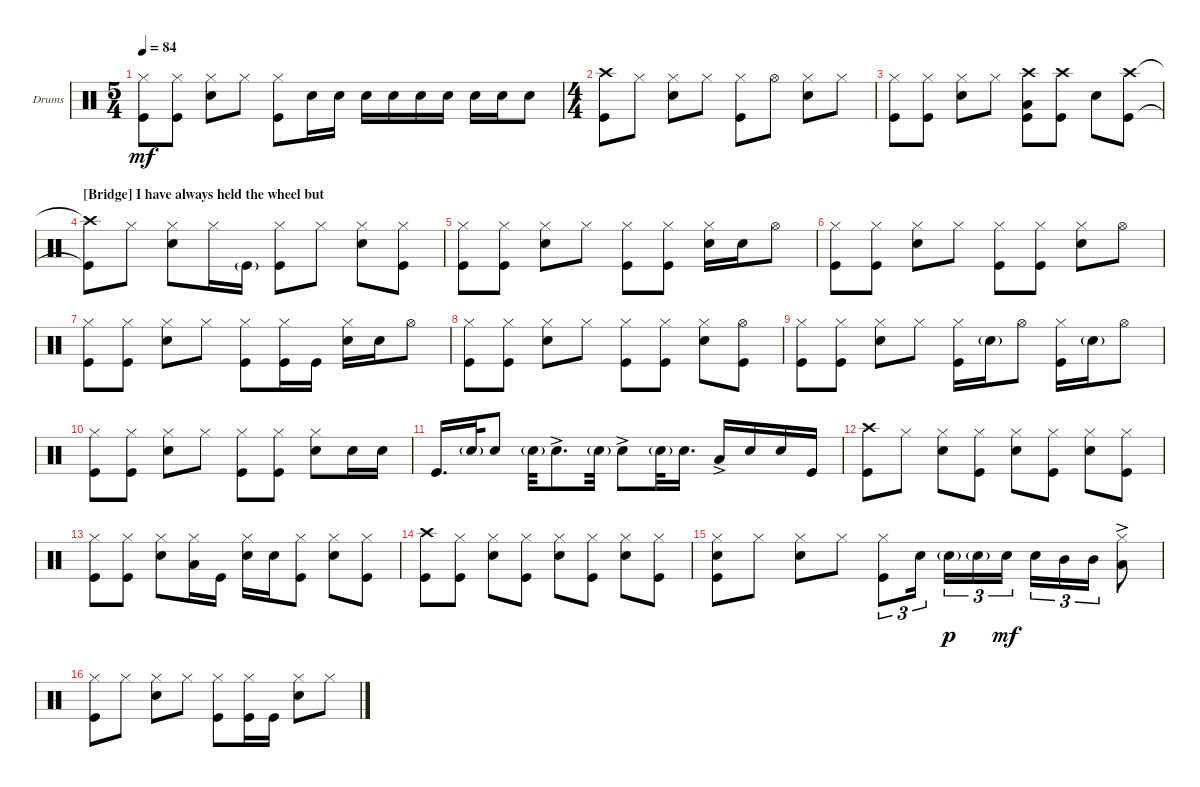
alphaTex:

\defaultSystemsLayout 4
\bracketExtendMode groupsimilarinstruments
\firstSystemTrackNameOrientation horizontal
\otherSystemsTrackNameOrientation horizontal
\track ("Drumkit" "Drums") {instrument percussion}
\staff {score}
\articulation defaults
\ts (5 4)
\tempo 84
\clef neutral
\ks aminor
("Hi-Hat (closed)" "Kick (hit)").8{dy mf} ("Hi-Hat (closed)" "Kick (hit)").8 ("Hi-Hat (closed)" "Snare (hit) 2").8 "Hi-Hat (closed)".8 ("Hi-Hat (closed)" "Kick (hit)").8 "Snare (hit) 2".16 "Snare (hit) 2".16 "Snare (hit) 2".16 "Snare (hit) 2".16 "Snare (hit) 2".16 "Snare (hit) 2".16 "Snare (hit) 2".16 "Snare (hit) 2".16 "Snare (hit) 2".8 |
\ts (4 4)
("Kick (hit)" "Crash high (hit)").8 "Hi-Hat (closed)".8 ("Hi-Hat (closed)" "Snare (hit) 2").8 "Hi-Hat (closed)".8 ("Hi-Hat (closed)" "Kick (hit)").8 "Hi-Hat (open)".8 ("Hi-Hat (closed)" "Snare (hit) 2").8 "Hi-Hat (closed)".8 |
("Hi-Hat (closed)" "Kick (hit)").8 ("Hi-Hat (closed)" "Kick (hit)").8 ("Hi-Hat (closed)" "Snare (hit) 2").8 "Hi-Hat (closed)".8 ("Kick (hit)" "Crash high (hit)" "Low Tom (hit)").8 ("Crash high (hit)" "Kick (hit)").8 "Snare (hit) 2".8 ("Crash high (hit)" "Kick (hit)").8 |
\section ("" "[Bridge] I have always held the wheel but ")
("Crash high (hit)"{t} "Kick (hit)"{t}).8 "Hi-Hat (closed)".8 ("Hi-Hat (closed)" "Snare (hit) 2").8 "Hi-Hat (closed)".16 "Kick (hit)"{g}.16 ("Hi-Hat (closed)" "Kick (hit)").8 "Hi-Hat (closed)".8 ("Hi-Hat (closed)" "Snare (hit) 2").8 ("Hi-Hat (closed)" "Kick (hit)").8 |
("Hi-Hat (closed)" "Kick (hit)").8 ("Hi-Hat (closed)" "Kick (hit)").8 ("Hi-Hat (closed)" "Snare (hit) 2").8 "Hi-Hat (closed)".8 ("Hi-Hat (closed)" "Kick (hit)").8 ("Hi-Hat (closed)" "Kick (hit)").8 ("Hi-Hat (closed)" "Snare (hit) 2").16 "Snare (hit) 2".16 "Hi-Hat (open)".8 |
("Hi-Hat (closed)" "Kick (hit)").8 ("Hi-Hat (closed)" "Kick (hit)").8 ("Hi-Hat (closed)" "Snare (hit) 2").8 "Hi-Hat (closed)".8 ("Hi-Hat (closed)" "Kick (hit)").8 ("Hi-Hat (closed)" "Kick (hit)").8 ("Hi-Hat (closed)" "Snare (hit) 2").8 "Hi-Hat (open)".8 |
("Hi-Hat (closed)" "Kick (hit)").8 ("Hi-Hat (closed)" "Kick (hit)").8 ("Hi-Hat (closed)" "Snare (hit) 2").8 "Hi-Hat (closed)".8 ("Hi-Hat (closed)" "Kick (hit)").8 ("Hi-Hat (closed)" "Kick (hit)").16 "Kick (hit)".16 ("Hi-Hat (closed)" "Snare (hit) 2").16 "Snare (hit) 2".16 "Hi-Hat (open)".8 |
("Hi-Hat (closed)" "Kick (hit)").8 ("Hi-Hat (closed)" "Kick (hit)").8 ("Hi-Hat (closed)" "Snare (hit) 2").8 "Hi-Hat (closed)".8 ("Hi-Hat (closed)" "Kick (hit)").8 ("Hi-Hat (closed)" "Kick (hit)").8 ("Hi-Hat (closed)" "Snare (hit) 2").8 ("Kick (hit)" "Hi-Hat (open)").8 |
("Hi-Hat (closed)" "Kick (hit)").8 ("Hi-Hat (closed)" "Kick (hit)").8 ("Hi-Hat (closed)" "Snare (hit) 2").8 "Hi-Hat (closed)".8 ("Hi-Hat (closed)" "Kick (hit)").16 "Snare (hit) 2"{g}.16 "Hi-Hat (open)".8 ("Hi-Hat (closed)" "Kick (hit)").16 "Snare (hit) 2"{g}.16 "Hi-Hat (open)".8 |
("Hi-Hat (closed)" "Kick (hit)").8 ("Hi-Hat (closed)" "Kick (hit)").8 ("Hi-Hat (closed)" "Snare (hit) 2").8 "Hi-Hat (closed)".8 ("Hi-Hat (closed)" "Kick (hit)").8 ("Hi-Hat (closed)" "Kick (hit)").8 ("Hi-Hat (closed)" "Snare (hit) 2").8 "Snare (hit) 2".16 "Snare (hit) 2".16 |
"Kick (hit)".16{d} "Snare (hit) 2"{g}.32 "Snare (hit) 2".8 "Snare (hit) 2"{g}.32 "Snare (hit) 2"{ac}.8{d} "Snare (hit) 2"{g}.32 "Snare (hit) 2"{ac}.8 "Snare (hit) 2"{g}.32 "Snare (hit) 2".16{d} "Low Tom (hit)"{ac}.16 "Snare (hit) 2".16 "Snare (hit) 2".16 "Kick (hit)".16 |
("Crash high (hit)" "Kick (hit)").8 "Hi-Hat (closed)".8 ("Hi-Hat (closed)" "Snare (hit) 2").8 ("Hi-Hat (closed)" "Kick (hit)").8 ("Hi-Hat (closed)" "Snare (hit) 2").8 ("Hi-Hat (closed)" "Kick (hit)").8 ("Hi-Hat (closed)" "Snare (hit) 2").8 ("Hi-Hat (closed)" "Kick (hit)").8 |
("Hi-Hat (closed)" "Kick (hit)").8 ("Hi-Hat (closed)" "Kick (hit)").8 ("Hi-Hat (closed)" "Snare (hit) 2").8 ("Hi-Hat (closed)" "Low Tom (hit)").16 "Kick (hit)".16 ("Hi-Hat (closed)" "Snare (hit) 2").16 "Snare (hit) 2".16 ("Hi-Hat (closed)" "Kick (hit)").8 ("Hi-Hat (closed)" "Snare (hit) 2").8 ("Hi-Hat (closed)" "Kick (hit)").8 |
("Kick (hit)" "Crash high (hit)").8 ("Hi-Hat (closed)" "Kick (hit)").8 ("Hi-Hat (closed)" "Snare (hit) 2").8 ("Hi-Hat (closed)" "Kick (hit)").8 ("Hi-Hat (closed)" "Snare (hit) 2").8 ("Hi-Hat (closed)" "Kick (hit)").8 ("Hi-Hat (closed)" "Snare (hit) 2").8 ("Hi-Hat (closed)" "Kick (hit)").8 |
("Hi-Hat (closed)" "Kick (hit)" "Snare (hit) 2").8 "Hi-Hat (closed)".8 ("Hi-Hat (closed)" "Snare (hit) 2").8 "Hi-Hat (closed)".8 ("Kick (hit)" "Hi-Hat (closed)").8{tu (3 2)} "Snare (hit) 2".16{tu (3 2)} "Snare (hit) 2"{g}.16{tu (3 2) dy p} "Snare (hit) 2"{g}.16{tu (3 2)} "Snare (hit) 2".16{tu (3 2) dy mf} "Snare (hit) 2".16{tu (3 2)} "Mid Tom (hit)".16{tu (3 2)} "Mid Tom (hit)".16{tu (3 2)} ("Low Tom (hit)"{ac} "Hi-Hat (closed)").8 |
("Hi-Hat (closed)" "Kick (hit)").8 "Hi-Hat (closed)".8 ("Hi-Hat (closed)" "Snare (hit) 2").8 "Hi-Hat (closed)".8 ("Kick (hit)" "Hi-Hat (closed)").8 ("Kick (hit)" "Hi-Hat (closed)").16 "Kick (hit)".16 ("Snare (hit) 2" "Hi-Hat (closed)").8 "Hi-Hat (closed)".8
